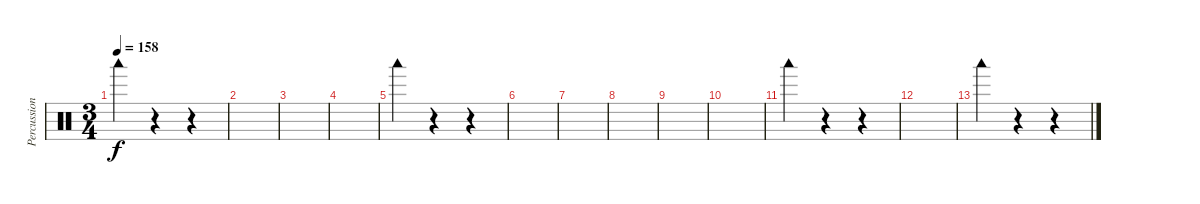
\track ("Percussion" "Percussion") {instrument percussion}
\staff {score}
\articulation defaults
\ts (3 4)
\tempo 158
\clef neutral
\ks c "Woodblock low (hit)".4{dy f}
r.4 r.4 |
|
|
|
"Woodblock low (hit)".4 r.4 r.4 |
|
|
|
|
|
"Woodblock low (hit)".4 r.4 r.4 |
|
"Woodblock low (hit)".4 r.4 r.4
